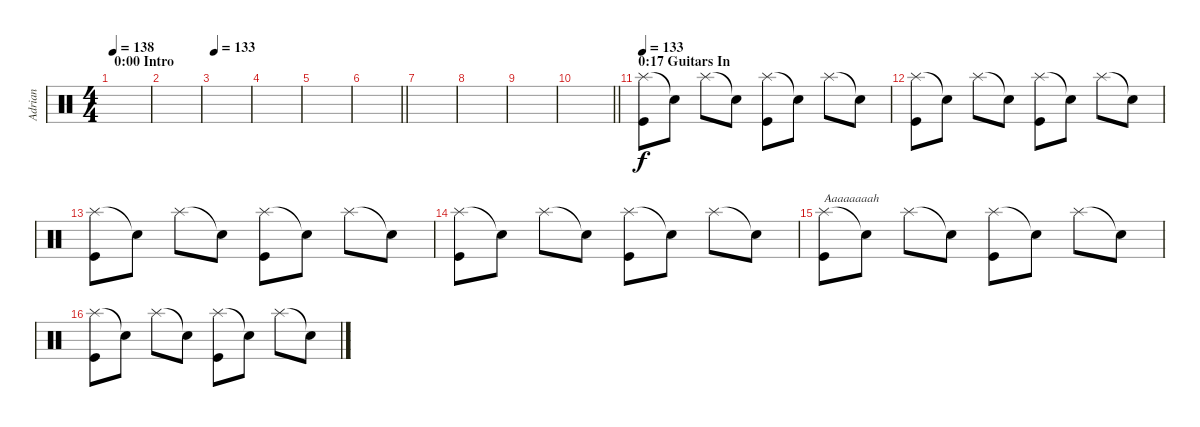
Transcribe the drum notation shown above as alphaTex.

\track ("Adrian" "Adrian") {instrument percussion}
\staff {score}
\articulation defaults
\ts (4 4)
\section ("" "0:00 Intro")
\tempo 138
\clef neutral
\ks c
|
|
\tempo 133
|
|
|
\barLineRight lightlight
|
|
|
|
\barLineRight lightlight
|
\section ("" "0:17 Guitars In")
\tempo 133
("Splash (hit)" "Kick (hit)").8 "Snare (hit)"{t}.8 "Splash (hit)".8 "Snare (hit)"{t}.8 ("Splash (hit)" "Kick (hit)").8 "Snare (hit)"{t}.8 "Splash (hit)".8 "Snare (hit)"{t}.8 |
("Splash (hit)" "Kick (hit)").8 "Snare (hit)"{t}.8 "Splash (hit)".8 "Snare (hit)"{t}.8 ("Splash (hit)" "Kick (hit)").8 "Snare (hit)"{t}.8 "Splash (hit)".8 "Snare (hit)"{t}.8 |
("Splash (hit)" "Kick (hit)").8 "Snare (hit)"{t}.8 "Splash (hit)".8 "Snare (hit)"{t}.8 ("Splash (hit)" "Kick (hit)").8 "Snare (hit)"{t}.8 "Splash (hit)".8 "Snare (hit)"{t}.8 |
("Splash (hit)" "Kick (hit)").8 "Snare (hit)"{t}.8 "Splash (hit)".8 "Snare (hit)"{t}.8 ("Splash (hit)" "Kick (hit)").8 "Snare (hit)"{t}.8 "Splash (hit)".8 "Snare (hit)"{t}.8 |
("Splash (hit)" "Kick (hit)").8{txt "Aaaaaaaah"} "Snare (hit)"{t}.8 "Splash (hit)".8 "Snare (hit)"{t}.8 ("Splash (hit)" "Kick (hit)").8 "Snare (hit)"{t}.8 "Splash (hit)".8 "Snare (hit)"{t}.8 |
("Splash (hit)" "Kick (hit)").8 "Snare (hit)"{t}.8 "Splash (hit)".8 "Snare (hit)"{t}.8 ("Splash (hit)" "Kick (hit)").8 "Snare (hit)"{t}.8 "Splash (hit)".8 "Snare (hit)"{t}.8
